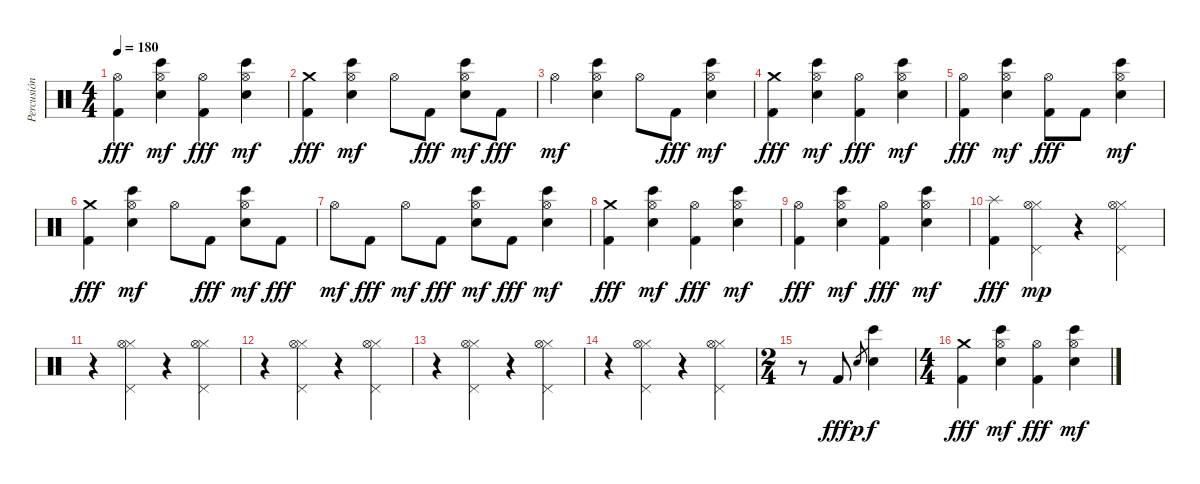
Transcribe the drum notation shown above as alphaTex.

\track ("Percusión" "Percusión") {instrument percussion}
\staff {score}
\articulation defaults
\ts (4 4)
\tempo 180
\clef neutral
\ks c
("Hi-Hat (open)" "Kick (hit) 2").4{dy fff} ("Hi-Hat (open)" "Bongo High (hit)" "Snare (hit) 2").4{dy mf} ("Hi-Hat (open)" "Kick (hit) 2").4{dy fff} ("Hi-Hat (open)" "Bongo High (hit)" "Snare (hit) 2").4{dy mf} |
("Crash medium (hit)" "Kick (hit) 2").4{dy fff} ("Hi-Hat (open)" "Bongo High (hit)" "Snare (hit) 2").4{dy mf} "Hi-Hat (open)".8 "Kick (hit) 2".8{dy fff} ("Hi-Hat (open)" "Bongo High (hit)" "Snare (hit) 2").8{dy mf} "Kick (hit) 2".8{dy fff} |
"Hi-Hat (open)".4{dy mf} ("Hi-Hat (open)" "Bongo High (hit)" "Snare (hit) 2").4 "Hi-Hat (open)".8 "Kick (hit) 2".8{dy fff} ("Hi-Hat (open)" "Bongo High (hit)" "Snare (hit) 2").4{dy mf} |
("Crash medium (hit)" "Kick (hit) 2").4{dy fff} ("Hi-Hat (open)" "Bongo High (hit)" "Snare (hit) 2").4{dy mf} ("Hi-Hat (open)" "Kick (hit) 2").4{dy fff} ("Hi-Hat (open)" "Bongo High (hit)" "Snare (hit) 2").4{dy mf} |
("Hi-Hat (open)" "Kick (hit) 2").4{dy fff} ("Hi-Hat (open)" "Bongo High (hit)" "Snare (hit) 2").4{dy mf} ("Hi-Hat (open)" "Kick (hit) 2").8{dy fff} "Kick (hit) 2".8 ("Hi-Hat (open)" "Bongo High (hit)" "Snare (hit) 2").4{dy mf} |
("Crash medium (hit)" "Kick (hit) 2").4{dy fff} ("Hi-Hat (open)" "Bongo High (hit)" "Snare (hit) 2").4{dy mf} "Hi-Hat (open)".8 "Kick (hit) 2".8{dy fff} ("Hi-Hat (open)" "Bongo High (hit)" "Snare (hit) 2").8{dy mf} "Kick (hit) 2".8{dy fff} |
"Hi-Hat (open)".8{dy mf} "Kick (hit) 2".8{dy fff} "Hi-Hat (open)".8{dy mf} "Kick (hit) 2".8{dy fff} ("Hi-Hat (open)" "Bongo High (hit)" "Snare (hit) 2").8{dy mf} "Kick (hit) 2".8{dy fff} ("Hi-Hat (open)" "Bongo High (hit)" "Snare (hit) 2").4{dy mf} |
("Crash medium (hit)" "Kick (hit) 2").4{dy fff} ("Hi-Hat (open)" "Bongo High (hit)" "Snare (hit) 2").4{dy mf} ("Hi-Hat (open)" "Kick (hit) 2").4{dy fff} ("Hi-Hat (open)" "Bongo High (hit)" "Snare (hit) 2").4{dy mf} |
("Hi-Hat (open)" "Kick (hit) 2").4{dy fff} ("Hi-Hat (open)" "Bongo High (hit)" "Snare (hit) 2").4{dy mf} ("Hi-Hat (open)" "Kick (hit) 2").4{dy fff} ("Hi-Hat (open)" "Bongo High (hit)" "Snare (hit) 2").4{dy mf} |
("Splash (hit)" "Kick (hit) 2").4{dy fff} ("Hi-Hat (closed)" "Pedal Hi-Hat (hit)" "Hi-Hat (open)").4{dy mp} r.4 ("Hi-Hat (closed)" "Pedal Hi-Hat (hit)" "Hi-Hat (open)").4 |
r.4 ("Hi-Hat (closed)" "Pedal Hi-Hat (hit)" "Hi-Hat (open)").4 r.4 ("Hi-Hat (closed)" "Pedal Hi-Hat (hit)" "Hi-Hat (open)").4 |
r.4 ("Hi-Hat (closed)" "Pedal Hi-Hat (hit)" "Hi-Hat (open)").4 r.4 ("Hi-Hat (closed)" "Pedal Hi-Hat (hit)" "Hi-Hat (open)").4 |
r.4 ("Hi-Hat (closed)" "Pedal Hi-Hat (hit)" "Hi-Hat (open)").4 r.4 ("Hi-Hat (closed)" "Pedal Hi-Hat (hit)" "Hi-Hat (open)").4 |
r.4 ("Hi-Hat (closed)" "Pedal Hi-Hat (hit)" "Hi-Hat (open)").4 r.4 ("Hi-Hat (closed)" "Pedal Hi-Hat (hit)" "Hi-Hat (open)").4 |
\ts (2 4)
r.8 "Kick (hit) 2".8{dy fff} "Snare (hit) 2".8{gr dy p} ("Bongo High (hit)" "Snare (hit) 2").4{dy f} |
\ts (4 4)
("Crash medium (hit)" "Kick (hit) 2").4{dy fff} ("Hi-Hat (open)" "Bongo High (hit)" "Snare (hit) 2").4{dy mf} ("Hi-Hat (open)" "Kick (hit) 2").4{dy fff} ("Hi-Hat (open)" "Bongo High (hit)" "Snare (hit) 2").4{dy mf}
